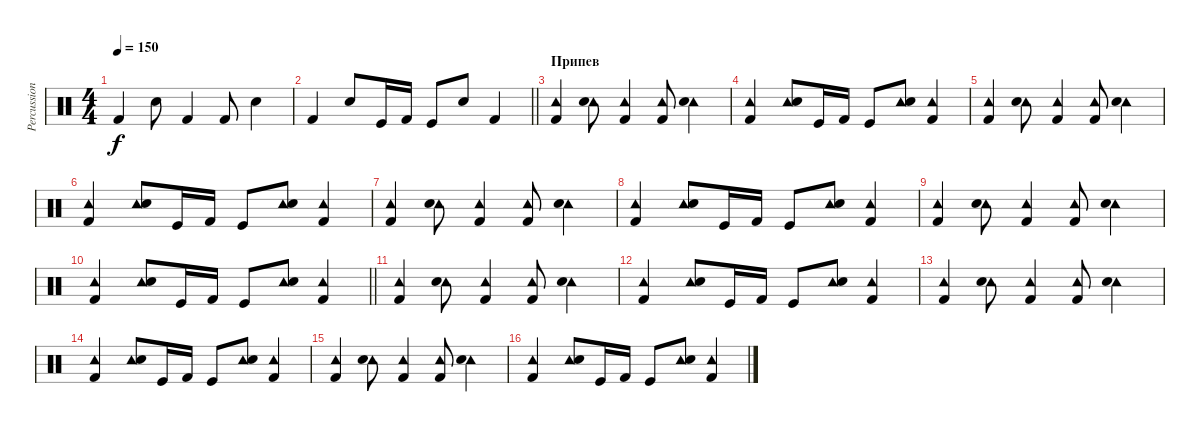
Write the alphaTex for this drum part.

\track ("Percussion" "Percussion") {instrument percussion bank 3}
\staff {score}
\articulation defaults
\ts (4 4)
\tempo 150
\clef neutral
\ks c "Kick (hit) 2".4{dy f} "Snare (hit) 2".8 "Kick (hit) 2".4 "Kick (hit) 2".8 "Snare (hit) 2".4
|
\barLineRight lightlight "Kick (hit) 2".4 "Snare (hit) 2".8 "Kick (hit)".16 "Kick (hit) 2".16 "Kick (hit)".8 "Snare (hit) 2".8 "Kick (hit) 2".4
|
\section ("" "Припев")
("Tambourine (hit)" "Kick (hit) 2").4 ("Tambourine (hit)" "Snare (hit) 2").8 ("Tambourine (hit)" "Kick (hit) 2").4 ("Tambourine (hit)" "Kick (hit) 2").8 ("Tambourine (hit)" "Snare (hit) 2").4 |
("Tambourine (hit)" "Kick (hit) 2").4 ("Tambourine (hit)" "Snare (hit) 2").8 "Kick (hit)".16 "Kick (hit) 2".16 "Kick (hit)".8 ("Tambourine (hit)" "Snare (hit) 2").8 ("Tambourine (hit)" "Kick (hit) 2").4 |
("Tambourine (hit)" "Kick (hit) 2").4 ("Tambourine (hit)" "Snare (hit) 2").8 ("Tambourine (hit)" "Kick (hit) 2").4 ("Tambourine (hit)" "Kick (hit) 2").8 ("Tambourine (hit)" "Snare (hit) 2").4 |
("Tambourine (hit)" "Kick (hit) 2").4 ("Tambourine (hit)" "Snare (hit) 2").8 "Kick (hit)".16 "Kick (hit) 2".16 "Kick (hit)".8 ("Tambourine (hit)" "Snare (hit) 2").8 ("Tambourine (hit)" "Kick (hit) 2").4 |
("Tambourine (hit)" "Kick (hit) 2").4 ("Tambourine (hit)" "Snare (hit) 2").8 ("Tambourine (hit)" "Kick (hit) 2").4 ("Tambourine (hit)" "Kick (hit) 2").8 ("Tambourine (hit)" "Snare (hit) 2").4 |
("Tambourine (hit)" "Kick (hit) 2").4 ("Tambourine (hit)" "Snare (hit) 2").8 "Kick (hit)".16 "Kick (hit) 2".16 "Kick (hit)".8 ("Tambourine (hit)" "Snare (hit) 2").8 ("Tambourine (hit)" "Kick (hit) 2").4 |
("Tambourine (hit)" "Kick (hit) 2").4 ("Tambourine (hit)" "Snare (hit) 2").8 ("Tambourine (hit)" "Kick (hit) 2").4 ("Tambourine (hit)" "Kick (hit) 2").8 ("Tambourine (hit)" "Snare (hit) 2").4 |
\barLineRight lightlight
("Tambourine (hit)" "Kick (hit) 2").4 ("Tambourine (hit)" "Snare (hit) 2").8 "Kick (hit)".16 "Kick (hit) 2".16 "Kick (hit)".8 ("Tambourine (hit)" "Snare (hit) 2").8 ("Tambourine (hit)" "Kick (hit) 2").4 |
("Tambourine (hit)" "Kick (hit) 2").4 ("Tambourine (hit)" "Snare (hit) 2").8 ("Tambourine (hit)" "Kick (hit) 2").4 ("Tambourine (hit)" "Kick (hit) 2").8 ("Tambourine (hit)" "Snare (hit) 2").4 |
("Tambourine (hit)" "Kick (hit) 2").4 ("Tambourine (hit)" "Snare (hit) 2").8 "Kick (hit)".16 "Kick (hit) 2".16 "Kick (hit)".8 ("Tambourine (hit)" "Snare (hit) 2").8 ("Tambourine (hit)" "Kick (hit) 2").4 |
("Tambourine (hit)" "Kick (hit) 2").4 ("Tambourine (hit)" "Snare (hit) 2").8 ("Tambourine (hit)" "Kick (hit) 2").4 ("Tambourine (hit)" "Kick (hit) 2").8 ("Tambourine (hit)" "Snare (hit) 2").4 |
("Tambourine (hit)" "Kick (hit) 2").4 ("Tambourine (hit)" "Snare (hit) 2").8 "Kick (hit)".16 "Kick (hit) 2".16 "Kick (hit)".8 ("Tambourine (hit)" "Snare (hit) 2").8 ("Tambourine (hit)" "Kick (hit) 2").4 |
("Tambourine (hit)" "Kick (hit) 2").4 ("Tambourine (hit)" "Snare (hit) 2").8 ("Tambourine (hit)" "Kick (hit) 2").4 ("Tambourine (hit)" "Kick (hit) 2").8 ("Tambourine (hit)" "Snare (hit) 2").4 |
("Tambourine (hit)" "Kick (hit) 2").4 ("Tambourine (hit)" "Snare (hit) 2").8 "Kick (hit)".16 "Kick (hit) 2".16 "Kick (hit)".8 ("Tambourine (hit)" "Snare (hit) 2").8 ("Tambourine (hit)" "Kick (hit) 2").4
